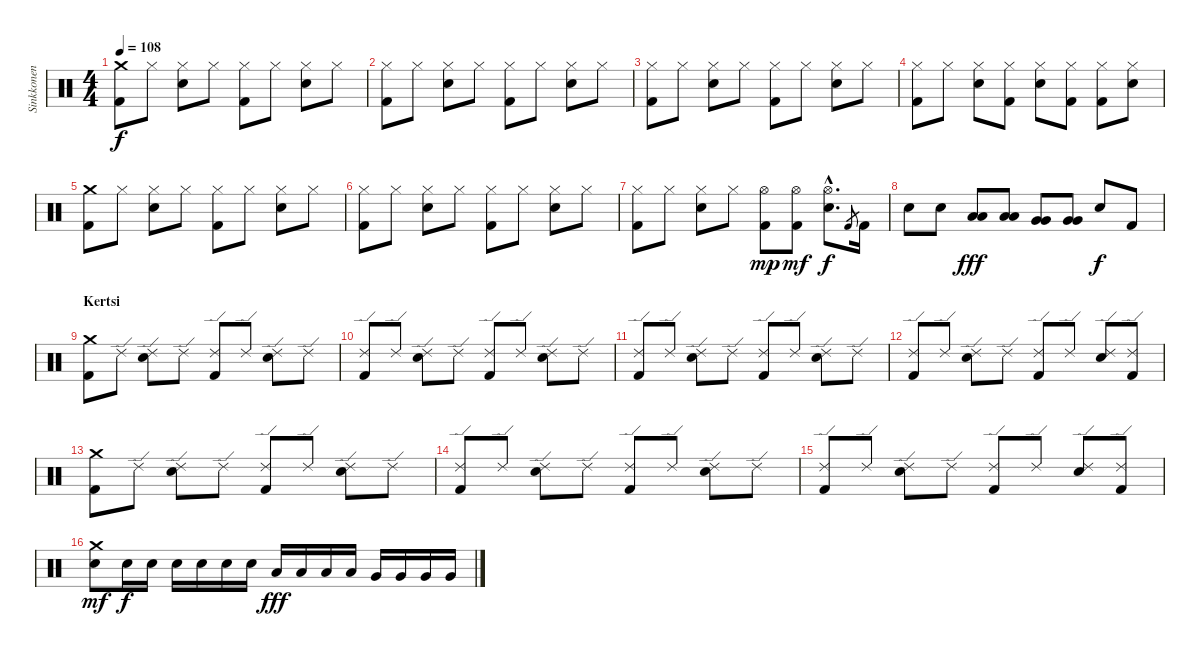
\track ("Sinkkonen" "Sinkkonen") {instrument percussion}
\staff {score}
\articulation defaults
\ts (4 4)
\tempo 108
\clef neutral
\ks c
("Kick (hit) 2" "Crash medium (hit)").8{dy f} "Hi-Hat (closed)".8 ("Hi-Hat (closed)" "Snare (hit) 2").8 "Hi-Hat (closed)".8 ("Kick (hit) 2" "Hi-Hat (closed)").8 "Hi-Hat (closed)".8 ("Hi-Hat (closed)" "Snare (hit) 2").8 "Hi-Hat (closed)".8 |
("Kick (hit) 2" "Hi-Hat (closed)").8 "Hi-Hat (closed)".8 ("Hi-Hat (closed)" "Snare (hit) 2").8 "Hi-Hat (closed)".8 ("Kick (hit) 2" "Hi-Hat (closed)").8 "Hi-Hat (closed)".8 ("Hi-Hat (closed)" "Snare (hit) 2").8 "Hi-Hat (closed)".8 |
("Kick (hit) 2" "Hi-Hat (closed)").8 "Hi-Hat (closed)".8 ("Hi-Hat (closed)" "Snare (hit) 2").8 "Hi-Hat (closed)".8 ("Kick (hit) 2" "Hi-Hat (closed)").8 "Hi-Hat (closed)".8 ("Hi-Hat (closed)" "Snare (hit) 2").8 "Hi-Hat (closed)".8 |
("Kick (hit) 2" "Hi-Hat (closed)").8 "Hi-Hat (closed)".8 ("Hi-Hat (closed)" "Snare (hit) 2").8 ("Kick (hit) 2" "Hi-Hat (closed)").8 ("Hi-Hat (closed)" "Snare (hit) 2").8 ("Kick (hit) 2" "Hi-Hat (closed)").8 ("Kick (hit) 2" "Hi-Hat (closed)").8 ("Hi-Hat (closed)" "Snare (hit) 2").8 |
("Kick (hit) 2" "Crash medium (hit)").8 "Hi-Hat (closed)".8 ("Hi-Hat (closed)" "Snare (hit) 2").8 "Hi-Hat (closed)".8 ("Kick (hit) 2" "Hi-Hat (closed)").8 "Hi-Hat (closed)".8 ("Hi-Hat (closed)" "Snare (hit) 2").8 "Hi-Hat (closed)".8 |
("Kick (hit) 2" "Hi-Hat (closed)").8 "Hi-Hat (closed)".8 ("Hi-Hat (closed)" "Snare (hit) 2").8 "Hi-Hat (closed)".8 ("Kick (hit) 2" "Hi-Hat (closed)").8 "Hi-Hat (closed)".8 ("Hi-Hat (closed)" "Snare (hit) 2").8 "Hi-Hat (closed)".8 |
("Kick (hit) 2" "Hi-Hat (closed)").8 "Hi-Hat (closed)".8 ("Hi-Hat (closed)" "Snare (hit) 2").8 "Hi-Hat (closed)".8 ("Kick (hit) 2" "Hi-Hat (open)").8{dy mp} ("Kick (hit) 2" "Hi-Hat (open)").8{dy mf} ("Hi-Hat (open)"{hac} "Snare (hit) 2"{hac}).8{d dy f} "Kick (hit) 2".8{gr} "Kick (hit) 2".16 |
"Snare (hit) 2".8 "Snare (hit) 2".8 ("Low Tom (hit)" "Low Tom (hit)").8{dy fff} ("Low Tom (hit)" "Low Tom (hit)").8 ("Very Low Tom (hit)" "Very Low Tom (hit)").8 ("Very Low Tom (hit)" "Very Low Tom (hit)").8 "Snare (hit) 2".8{dy f} "Kick (hit) 2".8 |
\section ("" "Kertsi")
("Kick (hit) 2" "Crash medium (hit)").8 "Ride (edge) 2".8 ("Ride (edge) 2" "Snare (hit) 2").8 "Ride (edge) 2".8 ("Kick (hit) 2" "Ride (edge) 2").8 "Ride (edge) 2".8 ("Ride (edge) 2" "Snare (hit) 2").8 "Ride (edge) 2".8 |
("Kick (hit) 2" "Ride (edge) 2").8 "Ride (edge) 2".8 ("Ride (edge) 2" "Snare (hit) 2").8 "Ride (edge) 2".8 ("Kick (hit) 2" "Ride (edge) 2").8 "Ride (edge) 2".8 ("Ride (edge) 2" "Snare (hit) 2").8 "Ride (edge) 2".8 |
("Kick (hit) 2" "Ride (edge) 2").8 "Ride (edge) 2".8 ("Ride (edge) 2" "Snare (hit) 2").8 "Ride (edge) 2".8 ("Kick (hit) 2" "Ride (edge) 2").8 "Ride (edge) 2".8 ("Ride (edge) 2" "Snare (hit) 2").8 "Ride (edge) 2".8 |
("Kick (hit) 2" "Ride (edge) 2").8 "Ride (edge) 2".8 ("Ride (edge) 2" "Snare (hit) 2").8 "Ride (edge) 2".8 ("Kick (hit) 2" "Ride (edge) 2").8 "Ride (edge) 2".8 ("Ride (edge) 2" "Snare (hit) 2").8 ("Kick (hit) 2" "Ride (edge) 2").8 |
("Kick (hit) 2" "Crash medium (hit)").8 "Ride (edge) 2".8 ("Ride (edge) 2" "Snare (hit) 2").8 "Ride (edge) 2".8 ("Kick (hit) 2" "Ride (edge) 2").8 "Ride (edge) 2".8 ("Ride (edge) 2" "Snare (hit) 2").8 "Ride (edge) 2".8 |
("Kick (hit) 2" "Ride (edge) 2").8 "Ride (edge) 2".8 ("Ride (edge) 2" "Snare (hit) 2").8 "Ride (edge) 2".8 ("Kick (hit) 2" "Ride (edge) 2").8 "Ride (edge) 2".8 ("Ride (edge) 2" "Snare (hit) 2").8 "Ride (edge) 2".8 |
("Kick (hit) 2" "Ride (edge) 2").8 "Ride (edge) 2".8 ("Ride (edge) 2" "Snare (hit) 2").8 "Ride (edge) 2".8 ("Kick (hit) 2" "Ride (edge) 2").8 "Ride (edge) 2".8 ("Ride (edge) 2" "Snare (hit) 2").8 ("Kick (hit) 2" "Ride (edge) 2").8 |
("Crash medium (hit)" "Snare (hit) 2").8{dy mf} "Snare (hit) 2".16{dy f} "Snare (hit) 2".16 "Snare (hit) 2".16 "Snare (hit) 2".16 "Snare (hit) 2".16 "Snare (hit) 2".16 "Low Tom (hit)".16{dy fff} "Low Tom (hit)".16 "Low Tom (hit)".16 "Low Tom (hit)".16 "Very Low Tom (hit)".16 "Very Low Tom (hit)".16 "Very Low Tom (hit)".16 "Very Low Tom (hit)".16
